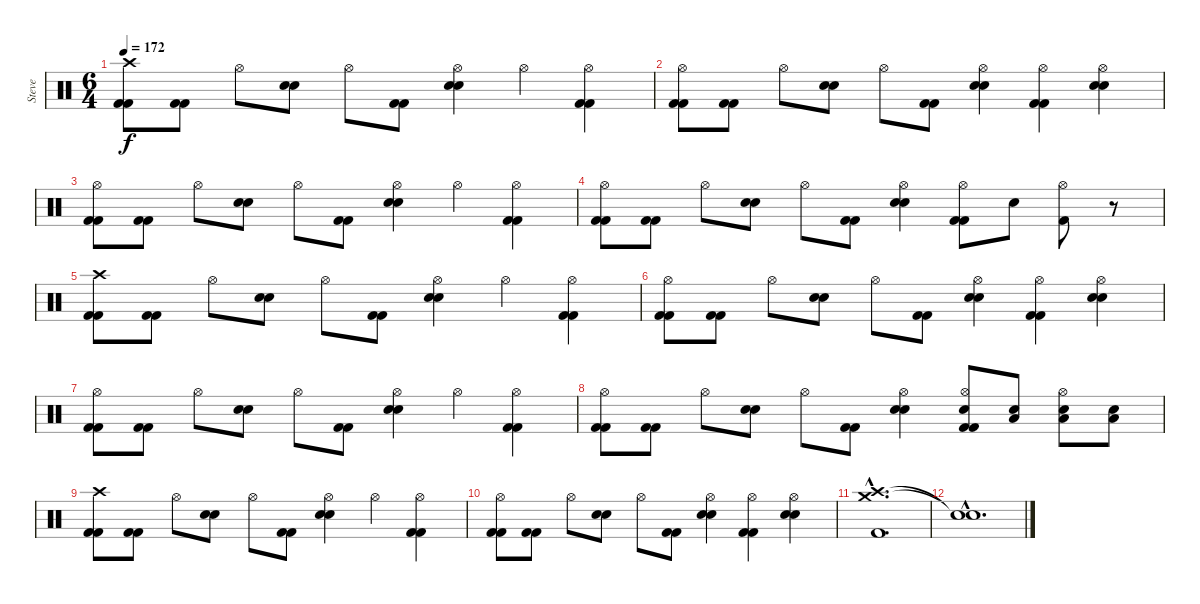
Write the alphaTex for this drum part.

\track ("Steve" "Steve") {instrument percussion}
\staff {score}
\articulation defaults
\ts (6 4)
\tempo 172
\clef neutral
\ks c
("Crash high (hit)" "Kick (hit) 2" "Kick (hit) 2").8{dy f volume 16} ("Kick (hit) 2" "Kick (hit) 2").8 "Hi-Hat (open)".8 ("Electric Snare (hit)" "Electric Snare (hit)").8 "Hi-Hat (open)".8 ("Kick (hit) 2" "Kick (hit) 2").8 ("Hi-Hat (open)" "Electric Snare (hit)" "Electric Snare (hit)").4 "Hi-Hat (open)".4 ("Hi-Hat (open)" "Kick (hit) 2" "Kick (hit) 2").4 |
("Hi-Hat (open)" "Kick (hit) 2" "Kick (hit) 2").8 ("Kick (hit) 2" "Kick (hit) 2").8 "Hi-Hat (open)".8 ("Electric Snare (hit)" "Electric Snare (hit)").8 "Hi-Hat (open)".8 ("Kick (hit) 2" "Kick (hit) 2").8 ("Hi-Hat (open)" "Electric Snare (hit)" "Electric Snare (hit)").4 ("Hi-Hat (open)" "Kick (hit) 2" "Kick (hit) 2").4 ("Hi-Hat (open)" "Electric Snare (hit)" "Electric Snare (hit)").4 |
("Hi-Hat (open)" "Kick (hit) 2" "Kick (hit) 2").8 ("Kick (hit) 2" "Kick (hit) 2").8 "Hi-Hat (open)".8 ("Electric Snare (hit)" "Electric Snare (hit)").8 "Hi-Hat (open)".8 ("Kick (hit) 2" "Kick (hit) 2").8 ("Hi-Hat (open)" "Electric Snare (hit)" "Electric Snare (hit)").4 "Hi-Hat (open)".4 ("Hi-Hat (open)" "Kick (hit) 2" "Kick (hit) 2").4 |
("Hi-Hat (open)" "Kick (hit) 2" "Kick (hit) 2").8 ("Kick (hit) 2" "Kick (hit) 2").8 "Hi-Hat (open)".8 ("Electric Snare (hit)" "Electric Snare (hit)").8 "Hi-Hat (open)".8 ("Kick (hit) 2" "Kick (hit) 2").8 ("Hi-Hat (open)" "Electric Snare (hit)" "Electric Snare (hit)").4 ("Hi-Hat (open)" "Kick (hit) 2" "Kick (hit) 2").8 "Electric Snare (hit)".8 ("Hi-Hat (open)" "Kick (hit) 2").8 r.8 |
("Crash high (hit)" "Kick (hit) 2" "Kick (hit) 2").8 ("Kick (hit) 2" "Kick (hit) 2").8 "Hi-Hat (open)".8 ("Electric Snare (hit)" "Electric Snare (hit)").8 "Hi-Hat (open)".8 ("Kick (hit) 2" "Kick (hit) 2").8 ("Hi-Hat (open)" "Electric Snare (hit)" "Electric Snare (hit)").4 "Hi-Hat (open)".4 ("Hi-Hat (open)" "Kick (hit) 2" "Kick (hit) 2").4 |
("Hi-Hat (open)" "Kick (hit) 2" "Kick (hit) 2").8 ("Kick (hit) 2" "Kick (hit) 2").8 "Hi-Hat (open)".8 ("Electric Snare (hit)" "Electric Snare (hit)").8 "Hi-Hat (open)".8 ("Kick (hit) 2" "Kick (hit) 2").8 ("Hi-Hat (open)" "Electric Snare (hit)" "Electric Snare (hit)").4 ("Hi-Hat (open)" "Kick (hit) 2" "Kick (hit) 2").4 ("Hi-Hat (open)" "Electric Snare (hit)" "Electric Snare (hit)").4 |
("Hi-Hat (open)" "Kick (hit) 2" "Kick (hit) 2").8 ("Kick (hit) 2" "Kick (hit) 2").8 "Hi-Hat (open)".8 ("Electric Snare (hit)" "Electric Snare (hit)").8 "Hi-Hat (open)".8 ("Kick (hit) 2" "Kick (hit) 2").8 ("Hi-Hat (open)" "Electric Snare (hit)" "Electric Snare (hit)").4 "Hi-Hat (open)".4 ("Hi-Hat (open)" "Kick (hit) 2" "Kick (hit) 2").4 |
("Hi-Hat (open)" "Kick (hit) 2" "Kick (hit) 2").8 ("Kick (hit) 2" "Kick (hit) 2").8 "Hi-Hat (open)".8 ("Electric Snare (hit)" "Electric Snare (hit)").8 "Hi-Hat (open)".8 ("Kick (hit) 2" "Kick (hit) 2").8 ("Hi-Hat (open)" "Electric Snare (hit)" "Electric Snare (hit)").4 ("Hi-Hat (open)" "Electric Snare (hit)" "Kick (hit) 2" "Kick (hit) 2").8 ("Electric Snare (hit)" "Low Tom (hit)").8 ("Hi-Hat (open)" "Electric Snare (hit)" "Low Tom (hit)").8 ("Electric Snare (hit)" "Low Tom (hit)").8 |
("Crash high (hit)" "Kick (hit) 2" "Kick (hit) 2").8{volume 16} ("Kick (hit) 2" "Kick (hit) 2").8 "Hi-Hat (open)".8 ("Electric Snare (hit)" "Electric Snare (hit)").8 "Hi-Hat (open)".8 ("Kick (hit) 2" "Kick (hit) 2").8 ("Hi-Hat (open)" "Electric Snare (hit)" "Electric Snare (hit)").4 "Hi-Hat (open)".4 ("Hi-Hat (open)" "Kick (hit) 2" "Kick (hit) 2").4 |
("Hi-Hat (open)" "Kick (hit) 2" "Kick (hit) 2").8 ("Kick (hit) 2" "Kick (hit) 2").8 "Hi-Hat (open)".8 ("Electric Snare (hit)" "Electric Snare (hit)").8 "Hi-Hat (open)".8 ("Kick (hit) 2" "Kick (hit) 2").8 ("Hi-Hat (open)" "Electric Snare (hit)" "Electric Snare (hit)").4 ("Hi-Hat (open)" "Kick (hit) 2" "Kick (hit) 2").4 ("Hi-Hat (open)" "Electric Snare (hit)" "Electric Snare (hit)").4 |
("Crash medium (hit)"{hac} "Crash high (hit)"{hac} "Kick (hit) 2"{hac}).1{d} |
("Snare (hit)"{hac t} "Snare (hit)"{hac t}).1{d}
